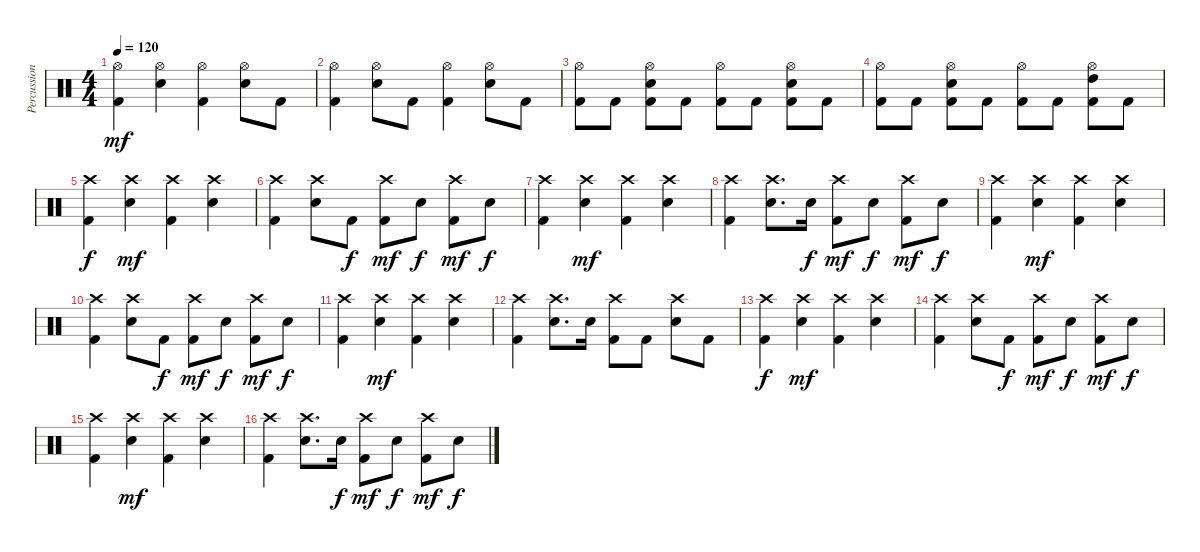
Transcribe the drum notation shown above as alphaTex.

\track ("Percussion" "Percussion") {instrument percussion}
\staff {score}
\articulation defaults
\ts (4 4)
\tempo 120
\clef neutral
\ks c
("Hi-Hat (open)" "Kick (hit) 2").4{dy mf} ("Hi-Hat (open)" "Snare (hit) 2").4 ("Hi-Hat (open)" "Kick (hit) 2").4 ("Hi-Hat (open)" "Snare (hit) 2").8 "Kick (hit) 2".8 |
("Hi-Hat (open)" "Kick (hit) 2").4 ("Hi-Hat (open)" "Snare (hit) 2").8 "Kick (hit) 2".8 ("Hi-Hat (open)" "Kick (hit) 2").4 ("Hi-Hat (open)" "Snare (hit) 2").8 "Kick (hit) 2".8 |
("Hi-Hat (open)" "Kick (hit) 2").8 "Kick (hit) 2".8 ("Hi-Hat (open)" "Snare (hit) 2" "Kick (hit) 2").8 "Kick (hit) 2".8 ("Hi-Hat (open)" "Kick (hit) 2").8 "Kick (hit) 2".8 ("Hi-Hat (open)" "Snare (hit) 2" "Kick (hit) 2").8 "Kick (hit) 2".8 |
("Hi-Hat (open)" "Kick (hit) 2").8 "Kick (hit) 2".8 ("Hi-Hat (open)" "Snare (hit) 2" "Kick (hit) 2").8 "Kick (hit) 2".8 ("Hi-Hat (open)" "Kick (hit) 2").8 "Kick (hit) 2".8 ("Hi-Hat (open)" "High Tom (hit)" "Kick (hit) 2").8 "Kick (hit) 2".8 |
("Crash high (hit)" "Kick (hit) 2").4{dy f} ("Crash high (hit)" "Snare (hit) 2").4{dy mf} ("Crash high (hit)" "Kick (hit) 2").4 ("Crash high (hit)" "Snare (hit) 2").4 |
("Crash high (hit)" "Kick (hit) 2").4 ("Crash high (hit)" "Snare (hit) 2").8 "Kick (hit) 2".8{dy f} ("Crash high (hit)" "Kick (hit) 2").8{dy mf} "Snare (hit) 2".8{dy f} ("Crash high (hit)" "Kick (hit) 2").8{dy mf} "Snare (hit) 2".8{dy f} |
("Crash high (hit)" "Kick (hit) 2").4 ("Crash high (hit)" "Snare (hit) 2").4{dy mf} ("Crash high (hit)" "Kick (hit) 2").4 ("Crash high (hit)" "Snare (hit) 2").4 |
("Crash high (hit)" "Kick (hit) 2").4 ("Crash high (hit)" "Snare (hit) 2").8{d} "Snare (hit) 2".16{dy f} ("Crash high (hit)" "Kick (hit) 2").8{dy mf} "Snare (hit) 2".8{dy f} ("Crash high (hit)" "Kick (hit) 2").8{dy mf} "Snare (hit) 2".8{dy f} |
("Crash high (hit)" "Kick (hit) 2").4 ("Crash high (hit)" "Snare (hit) 2").4{dy mf} ("Crash high (hit)" "Kick (hit) 2").4 ("Crash high (hit)" "Snare (hit) 2").4 |
("Crash high (hit)" "Kick (hit) 2").4 ("Crash high (hit)" "Snare (hit) 2").8 "Kick (hit) 2".8{dy f} ("Crash high (hit)" "Kick (hit) 2").8{dy mf} "Snare (hit) 2".8{dy f} ("Crash high (hit)" "Kick (hit) 2").8{dy mf} "Snare (hit) 2".8{dy f} |
("Crash high (hit)" "Kick (hit) 2").4 ("Crash high (hit)" "Snare (hit) 2").4{dy mf} ("Crash high (hit)" "Kick (hit) 2").4 ("Crash high (hit)" "Snare (hit) 2").4 |
("Crash high (hit)" "Kick (hit) 2").4 ("Crash high (hit)" "Snare (hit) 2").8{d} "Snare (hit) 2".16 ("Crash high (hit)" "Kick (hit) 2").8 "Kick (hit) 2".8 ("Crash high (hit)" "Snare (hit) 2").8 "Kick (hit) 2".8 |
("Crash high (hit)" "Kick (hit) 2").4{dy f} ("Crash high (hit)" "Snare (hit) 2").4{dy mf} ("Crash high (hit)" "Kick (hit) 2").4 ("Crash high (hit)" "Snare (hit) 2").4 |
("Crash high (hit)" "Kick (hit) 2").4 ("Crash high (hit)" "Snare (hit) 2").8 "Kick (hit) 2".8{dy f} ("Crash high (hit)" "Kick (hit) 2").8{dy mf} "Snare (hit) 2".8{dy f} ("Crash high (hit)" "Kick (hit) 2").8{dy mf} "Snare (hit) 2".8{dy f} |
("Crash high (hit)" "Kick (hit) 2").4 ("Crash high (hit)" "Snare (hit) 2").4{dy mf} ("Crash high (hit)" "Kick (hit) 2").4 ("Crash high (hit)" "Snare (hit) 2").4 |
("Crash high (hit)" "Kick (hit) 2").4 ("Crash high (hit)" "Snare (hit) 2").8{d} "Snare (hit) 2".16{dy f} ("Crash high (hit)" "Kick (hit) 2").8{dy mf} "Snare (hit) 2".8{dy f} ("Crash high (hit)" "Kick (hit) 2").8{dy mf} "Snare (hit) 2".8{dy f}
